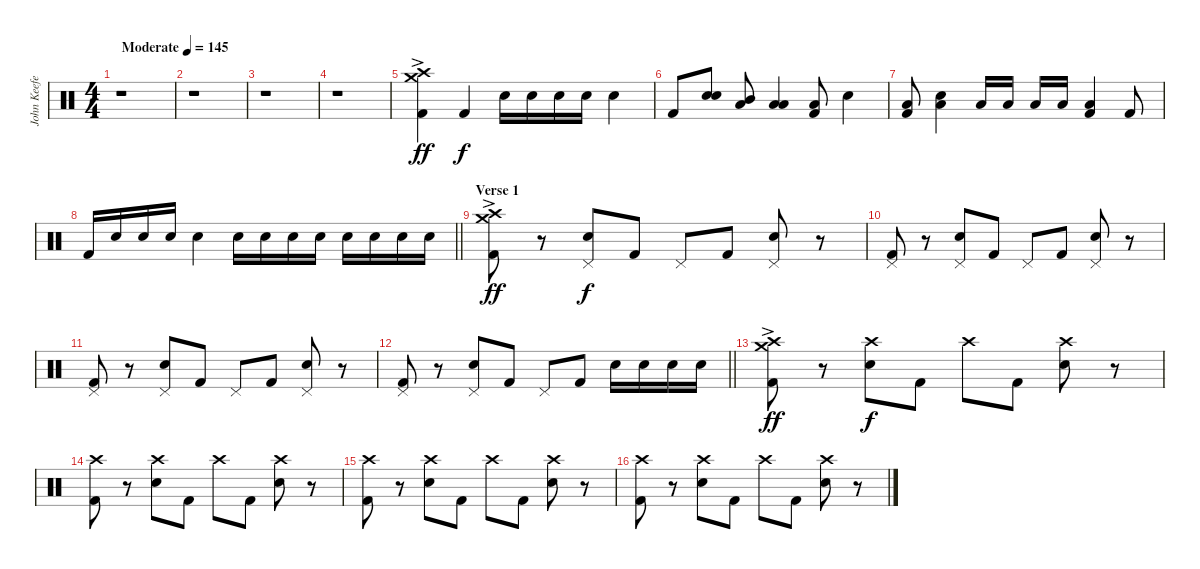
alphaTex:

\track ("John Keefe (Percussion)" "John Keefe") {instrument percussion}
\staff {score}
\articulation defaults
\ts (4 4)
\tempo (145 "Moderate")
\clef neutral
\ks c
r.1{dy ff} |
r.1 |
r.1 |
r.1 |
("Crash high (hit)"{ac} "Crash medium (hit)" "Kick (hit) 2"{ac}).4 "Kick (hit) 2".4{dy f} "Electric Snare (hit)".16 "Electric Snare (hit)".16 "Electric Snare (hit)".16 "Electric Snare (hit)".16 "Electric Snare (hit)".4 |
"Kick (hit) 2".8 ("Electric Snare (hit)" "Electric Snare (hit)").8 ("Low Tom (hit)" "Mid Tom (hit)").8 ("Low Tom (hit)" "Low Floor Tom (hit)").4 ("Low Floor Tom (hit)" "Kick (hit) 2").8 "Electric Snare (hit)".4 |
("Low Floor Tom (hit)" "Kick (hit) 2").8 ("Low Floor Tom (hit)" "Electric Snare (hit)").4 "Low Tom (hit)".16 "Low Tom (hit)".16 "Low Tom (hit)".16 "Low Tom (hit)".16 ("Low Floor Tom (hit)" "Kick (hit) 2").4 "Kick (hit) 2".8 |
\barLineRight lightlight "Kick (hit) 2".16 "Electric Snare (hit)".16 "Electric Snare (hit)".16 "Electric Snare (hit)".16 "Electric Snare (hit)".4 "Electric Snare (hit)".16 "Electric Snare (hit)".16 "Electric Snare (hit)".16 "Electric Snare (hit)".16 "Electric Snare (hit)".16 "Electric Snare (hit)".16 "Electric Snare (hit)".16 "Electric Snare (hit)".16
|
\section ("" "Verse 1")
("Crash high (hit)"{ac} "Crash medium (hit)" "Kick (hit) 2"{ac}).8{dy ff} r.8 ("Pedal Hi-Hat (hit)" "Electric Snare (hit)").8{dy f} "Kick (hit) 2".8 "Pedal Hi-Hat (hit)".8 "Kick (hit) 2".8 ("Pedal Hi-Hat (hit)" "Electric Snare (hit)").8 r.8 |
("Pedal Hi-Hat (hit)" "Kick (hit) 2").8 r.8 ("Pedal Hi-Hat (hit)" "Electric Snare (hit)").8 "Kick (hit) 2".8 "Pedal Hi-Hat (hit)".8 "Kick (hit) 2".8 ("Pedal Hi-Hat (hit)" "Electric Snare (hit)").8 r.8 |
("Pedal Hi-Hat (hit)" "Kick (hit) 2").8 r.8 ("Pedal Hi-Hat (hit)" "Electric Snare (hit)").8 "Kick (hit) 2".8 "Pedal Hi-Hat (hit)".8 "Kick (hit) 2".8 ("Pedal Hi-Hat (hit)" "Electric Snare (hit)").8 r.8 |
\barLineRight lightlight
("Pedal Hi-Hat (hit)" "Kick (hit) 2").8 r.8 ("Pedal Hi-Hat (hit)" "Electric Snare (hit)").8 "Kick (hit) 2".8 "Pedal Hi-Hat (hit)".8 "Kick (hit) 2".8 "Electric Snare (hit)".16 "Electric Snare (hit)".16 "Electric Snare (hit)".16 "Electric Snare (hit)".16 |
("Crash high (hit)"{ac} "Crash medium (hit)" "Kick (hit) 2").8{dy ff} r.8 ("Crash high (hit)" "Electric Snare (hit)").8{dy f} "Kick (hit) 2".8 "Crash high (hit)".8 "Kick (hit) 2".8 ("Crash high (hit)" "Electric Snare (hit)").8 r.8 |
("Crash high (hit)" "Kick (hit) 2").8 r.8 ("Crash high (hit)" "Electric Snare (hit)").8 "Kick (hit) 2".8 "Crash high (hit)".8 "Kick (hit) 2".8 ("Crash high (hit)" "Electric Snare (hit)").8 r.8 |
("Crash high (hit)" "Kick (hit) 2").8 r.8 ("Crash high (hit)" "Electric Snare (hit)").8 "Kick (hit) 2".8 "Crash high (hit)".8 "Kick (hit) 2".8 ("Crash high (hit)" "Electric Snare (hit)").8 r.8 |
("Crash high (hit)" "Kick (hit) 2").8 r.8 ("Crash high (hit)" "Electric Snare (hit)").8 "Kick (hit) 2".8 "Crash high (hit)".8 "Kick (hit) 2".8 ("Crash high (hit)" "Electric Snare (hit)").8 r.8
